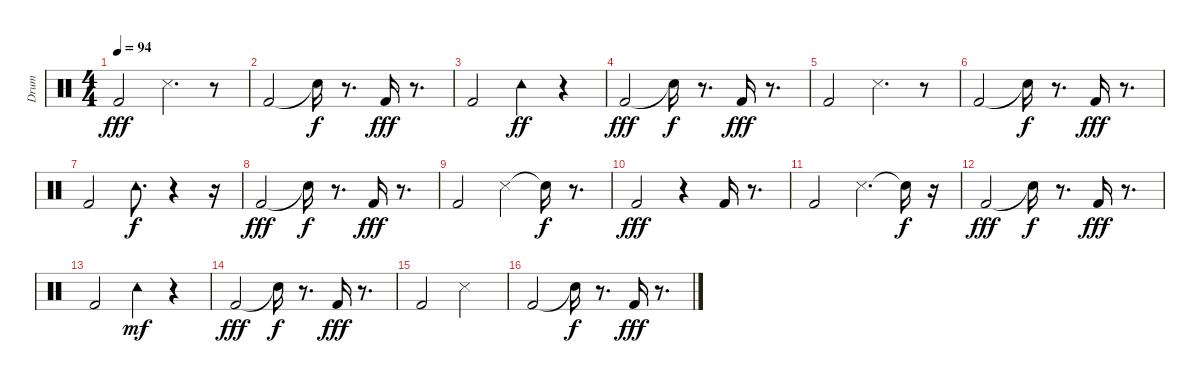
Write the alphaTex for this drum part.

\track ("Drum                    " "Drum      ") {instrument percussion}
\staff {score}
\articulation defaults
\ts (4 4)
\tempo 94
\clef neutral
\ks c "Kick (hit) 2".2{dy fff} "Snare (side stick) 3".4{d}
r.8 |
"Kick (hit) 2".2 "Snare (hit)"{t}.16{dy f} r.8{d} "Kick (hit) 2".16{dy fff} r.8{d} |
"Kick (hit) 2".2 "Tambourine (hit)".4{dy ff} r.4 |
"Kick (hit) 2".2{dy fff} "Snare (hit)"{t}.16{dy f} r.8{d} "Kick (hit) 2".16{dy fff} r.8{d} |
"Kick (hit) 2".2 "Snare (side stick) 3".4{d} r.8 |
"Kick (hit) 2".2 "Snare (hit)"{t}.16{dy f} r.8{d} "Kick (hit) 2".16{dy fff} r.8{d} |
"Kick (hit) 2".2 "Tambourine (hit)".8{d dy f} r.4 r.16 |
"Kick (hit) 2".2{dy fff} "Snare (hit)"{t}.16{dy f} r.8{d} "Kick (hit) 2".16{dy fff} r.8{d} |
"Kick (hit) 2".2 "Snare (side stick) 3".4 "Snare (hit)"{t}.16{dy f} r.8{d} |
"Kick (hit) 2".2{dy fff} r.4 "Kick (hit) 2".16 r.8{d} |
"Kick (hit) 2".2 "Snare (side stick) 3".4{d} "Snare (hit)"{t}.16{dy f} r.16 |
"Kick (hit) 2".2{dy fff} "Snare (hit)"{t}.16{dy f} r.8{d} "Kick (hit) 2".16{dy fff} r.8{d} |
"Kick (hit) 2".2 "Tambourine (hit)".4{dy mf} r.4 |
"Kick (hit) 2".2{dy fff} "Snare (hit)"{t}.16{dy f} r.8{d} "Kick (hit) 2".16{dy fff} r.8{d} |
"Kick (hit) 2".2 "Snare (side stick) 3".2 |
"Kick (hit) 2".2 "Snare (hit)"{t}.16{dy f} r.8{d} "Kick (hit) 2".16{dy fff} r.8{d}
